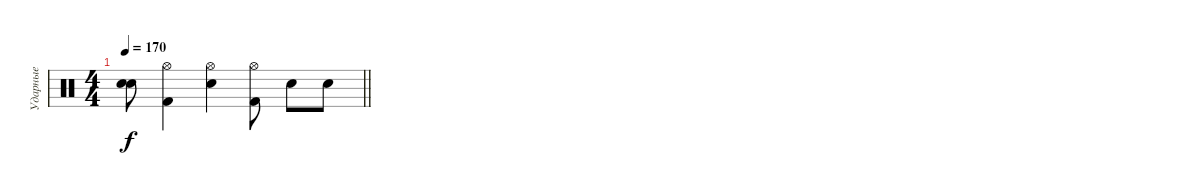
\track ("Ударные" "Ударные") {instrument percussion}
\staff {score}
\articulation defaults
\ts (4 4)
\tempo 170
\clef neutral
\barLineRight lightlight
\ks c
("Snare (hit)"{t} "Snare (hit)"{t}).8{dy f} ("Hi-Hat (open)" "Kick (hit) 2").4 ("Hi-Hat (open)" "Snare (hit) 2").4 ("Kick (hit) 2" "Hi-Hat (open)").8 "Snare (hit) 2".8 "Snare (hit) 2".8
